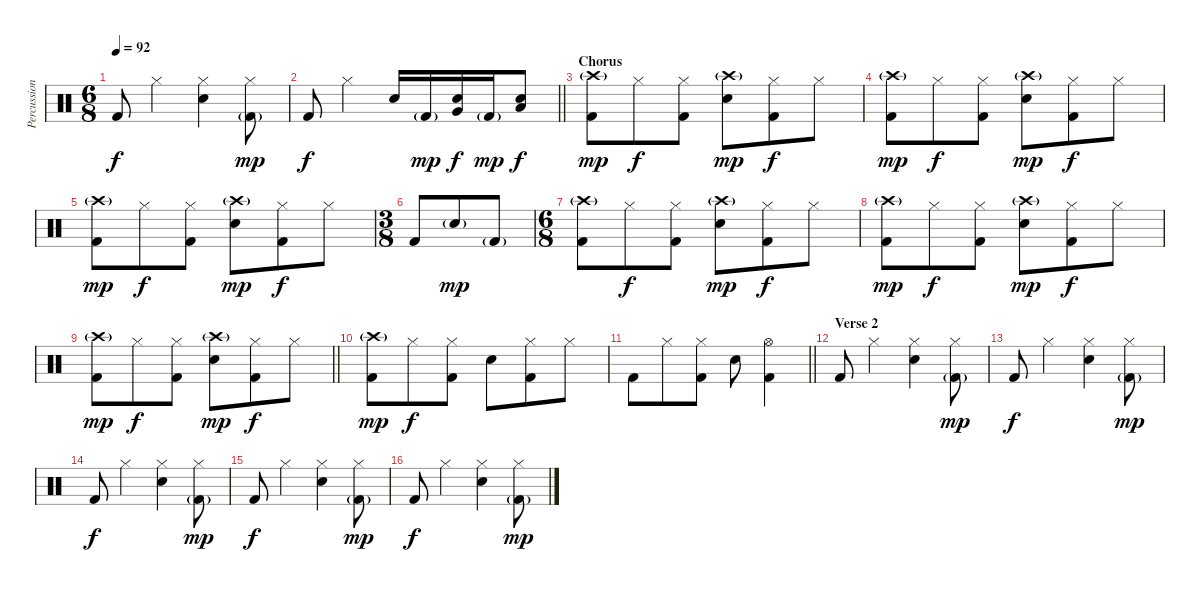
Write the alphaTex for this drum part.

\track ("Percussion" "Percussion") {instrument percussion}
\staff {score}
\articulation defaults
\ts (6 8)
\tempo 92
\clef neutral
\ks c "Kick (hit) 2".8{dy f} "Hi-Hat (closed)".4
("Hi-Hat (closed)" "Snare (hit) 2").4 ("Hi-Hat (closed)" "Kick (hit) 2"{g}).8{dy mp} |
\barLineRight lightlight "Kick (hit) 2".8{dy f} "Hi-Hat (closed)".4 "Snare (hit) 2".16 "Kick (hit) 2"{g}.16{dy mp}
("Snare (hit) 2" "Very Low Tom (hit)").16{dy f} "Kick (hit) 2"{g}.16{dy mp} ("Snare (hit) 2" "Low Floor Tom (hit)").8{dy f} |
\section ("" "Chorus")
("Crash high (hit)"{g} "Kick (hit) 2").8{dy mp} "Hi-Hat (closed)".8{dy f} ("Hi-Hat (closed)" "Kick (hit) 2").8 ("Crash high (hit)"{g} "Snare (hit) 2").8{dy mp} ("Hi-Hat (closed)" "Kick (hit) 2").8{dy f} "Hi-Hat (closed)".8 |
("Crash high (hit)"{g} "Kick (hit) 2").8{dy mp} "Hi-Hat (closed)".8{dy f} ("Hi-Hat (closed)" "Kick (hit) 2").8 ("Crash high (hit)"{g} "Snare (hit) 2").8{dy mp} ("Hi-Hat (closed)" "Kick (hit) 2").8{dy f} "Hi-Hat (closed)".8 |
("Crash high (hit)"{g} "Kick (hit) 2").8{dy mp} "Hi-Hat (closed)".8{dy f} ("Hi-Hat (closed)" "Kick (hit) 2").8 ("Crash high (hit)"{g} "Snare (hit) 2").8{dy mp} ("Hi-Hat (closed)" "Kick (hit) 2").8{dy f} "Hi-Hat (closed)".8 |
\ts (3 8)
"Kick (hit) 2".8 "Snare (hit) 2"{g}.8{dy mp} "Kick (hit) 2"{g}.8 |
\ts (6 8)
("Crash high (hit)"{g} "Kick (hit) 2").8 "Hi-Hat (closed)".8{dy f} ("Hi-Hat (closed)" "Kick (hit) 2").8 ("Crash high (hit)"{g} "Snare (hit) 2").8{dy mp} ("Hi-Hat (closed)" "Kick (hit) 2").8{dy f} "Hi-Hat (closed)".8 |
("Crash high (hit)"{g} "Kick (hit) 2").8{dy mp} "Hi-Hat (closed)".8{dy f} ("Hi-Hat (closed)" "Kick (hit) 2").8 ("Crash high (hit)"{g} "Snare (hit) 2").8{dy mp} ("Hi-Hat (closed)" "Kick (hit) 2").8{dy f} "Hi-Hat (closed)".8 |
\barLineRight lightlight
("Crash high (hit)"{g} "Kick (hit) 2").8{dy mp} "Hi-Hat (closed)".8{dy f} ("Hi-Hat (closed)" "Kick (hit) 2").8 ("Crash high (hit)"{g} "Snare (hit) 2").8{dy mp} ("Hi-Hat (closed)" "Kick (hit) 2").8{dy f} "Hi-Hat (closed)".8 |
("Crash high (hit)"{g} "Kick (hit) 2").8{dy mp} "Hi-Hat (closed)".8{dy f} ("Hi-Hat (closed)" "Kick (hit) 2").8 "Snare (hit) 2".8 ("Hi-Hat (closed)" "Kick (hit) 2").8 "Hi-Hat (closed)".8 |
\barLineRight lightlight "Kick (hit) 2".8 "Hi-Hat (closed)".8
("Hi-Hat (closed)" "Kick (hit) 2").8 "Snare (hit) 2".8 ("Hi-Hat (open)" "Kick (hit) 2").4 |
\section ("" "Verse 2")
"Kick (hit) 2".8 "Hi-Hat (closed)".4 ("Hi-Hat (closed)" "Snare (hit) 2").4 ("Hi-Hat (closed)" "Kick (hit) 2"{g}).8{dy mp} |
"Kick (hit) 2".8{dy f} "Hi-Hat (closed)".4 ("Hi-Hat (closed)" "Snare (hit) 2").4 ("Hi-Hat (closed)" "Kick (hit) 2"{g}).8{dy mp} |
"Kick (hit) 2".8{dy f} "Hi-Hat (closed)".4 ("Hi-Hat (closed)" "Snare (hit) 2").4 ("Hi-Hat (closed)" "Kick (hit) 2"{g}).8{dy mp} |
"Kick (hit) 2".8{dy f} "Hi-Hat (closed)".4 ("Hi-Hat (closed)" "Snare (hit) 2").4 ("Hi-Hat (closed)" "Kick (hit) 2"{g}).8{dy mp} |
"Kick (hit) 2".8{dy f} "Hi-Hat (closed)".4 ("Hi-Hat (closed)" "Snare (hit) 2").4 ("Hi-Hat (closed)" "Kick (hit) 2"{g}).8{dy mp}
